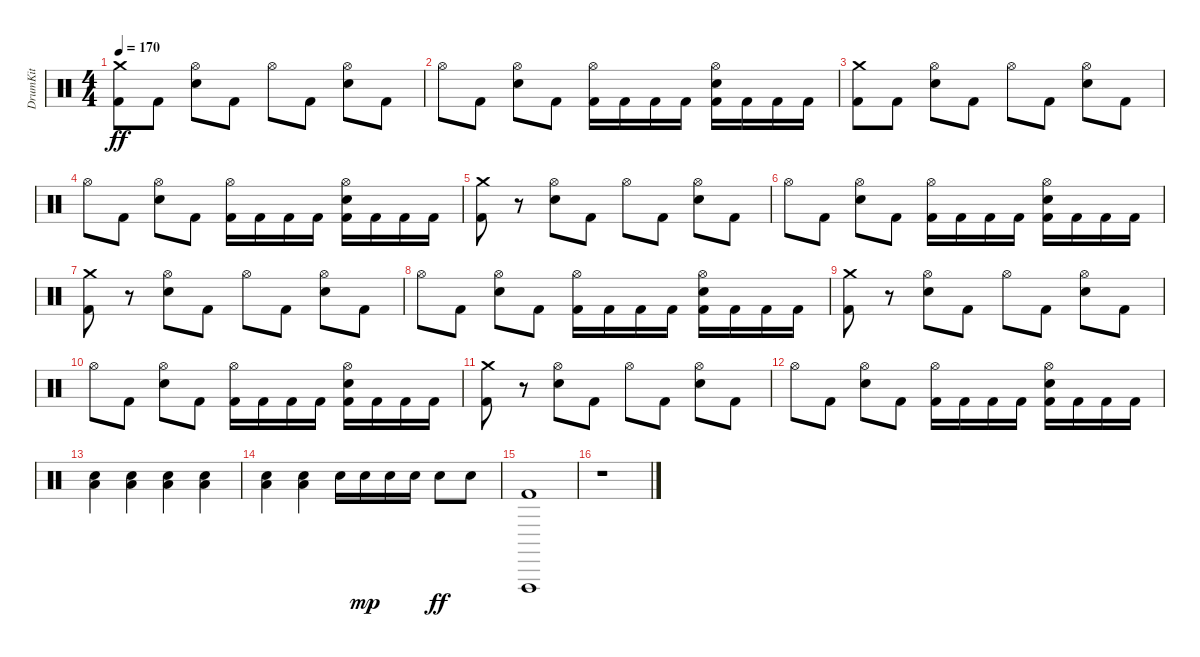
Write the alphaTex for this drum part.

\track ("DrumKit" "DrumKit") {instrument percussion}
\staff {score}
\articulation defaults
\ts (4 4)
\tempo 170
\clef neutral
\ks c
("Kick (hit) 2" "Crash medium (hit)").8{dy ff} "Kick (hit) 2".8 ("Snare (hit) 2" "Hi-Hat (open)").8 "Kick (hit) 2".8 "Hi-Hat (open)".8 "Kick (hit) 2".8 ("Snare (hit) 2" "Hi-Hat (open)").8 "Kick (hit) 2".8 |
"Hi-Hat (open)".8 "Kick (hit) 2".8 ("Snare (hit) 2" "Hi-Hat (open)").8 "Kick (hit) 2".8 ("Kick (hit) 2" "Hi-Hat (open)").16 "Kick (hit) 2".16 "Kick (hit) 2".16 "Kick (hit) 2".16 ("Kick (hit) 2" "Snare (hit) 2" "Hi-Hat (open)").16 "Kick (hit) 2".16 "Kick (hit) 2".16 "Kick (hit) 2".16 |
("Kick (hit) 2" "Crash medium (hit)").8 "Kick (hit) 2".8 ("Snare (hit) 2" "Hi-Hat (open)").8 "Kick (hit) 2".8 "Hi-Hat (open)".8 "Kick (hit) 2".8 ("Snare (hit) 2" "Hi-Hat (open)").8 "Kick (hit) 2".8 |
"Hi-Hat (open)".8 "Kick (hit) 2".8 ("Snare (hit) 2" "Hi-Hat (open)").8 "Kick (hit) 2".8 ("Kick (hit) 2" "Hi-Hat (open)").16 "Kick (hit) 2".16 "Kick (hit) 2".16 "Kick (hit) 2".16 ("Kick (hit) 2" "Snare (hit) 2" "Hi-Hat (open)").16 "Kick (hit) 2".16 "Kick (hit) 2".16 "Kick (hit) 2".16 |
("Kick (hit) 2" "Crash medium (hit)").8 r.8 ("Snare (hit) 2" "Hi-Hat (open)").8 "Kick (hit) 2".8 "Hi-Hat (open)".8 "Kick (hit) 2".8 ("Snare (hit) 2" "Hi-Hat (open)").8 "Kick (hit) 2".8 |
"Hi-Hat (open)".8 "Kick (hit) 2".8 ("Snare (hit) 2" "Hi-Hat (open)").8 "Kick (hit) 2".8 ("Kick (hit) 2" "Hi-Hat (open)").16 "Kick (hit) 2".16 "Kick (hit) 2".16 "Kick (hit) 2".16 ("Kick (hit) 2" "Snare (hit) 2" "Hi-Hat (open)").16 "Kick (hit) 2".16 "Kick (hit) 2".16 "Kick (hit) 2".16 |
("Kick (hit) 2" "Crash medium (hit)").8 r.8 ("Snare (hit) 2" "Hi-Hat (open)").8 "Kick (hit) 2".8 "Hi-Hat (open)".8 "Kick (hit) 2".8 ("Snare (hit) 2" "Hi-Hat (open)").8 "Kick (hit) 2".8 |
"Hi-Hat (open)".8 "Kick (hit) 2".8 ("Snare (hit) 2" "Hi-Hat (open)").8 "Kick (hit) 2".8 ("Kick (hit) 2" "Hi-Hat (open)").16 "Kick (hit) 2".16 "Kick (hit) 2".16 "Kick (hit) 2".16 ("Kick (hit) 2" "Snare (hit) 2" "Hi-Hat (open)").16 "Kick (hit) 2".16 "Kick (hit) 2".16 "Kick (hit) 2".16 |
("Kick (hit) 2" "Crash medium (hit)").8 r.8 ("Snare (hit) 2" "Hi-Hat (open)").8 "Kick (hit) 2".8 "Hi-Hat (open)".8 "Kick (hit) 2".8 ("Snare (hit) 2" "Hi-Hat (open)").8 "Kick (hit) 2".8 |
"Hi-Hat (open)".8 "Kick (hit) 2".8 ("Snare (hit) 2" "Hi-Hat (open)").8 "Kick (hit) 2".8 ("Kick (hit) 2" "Hi-Hat (open)").16 "Kick (hit) 2".16 "Kick (hit) 2".16 "Kick (hit) 2".16 ("Kick (hit) 2" "Snare (hit) 2" "Hi-Hat (open)").16 "Kick (hit) 2".16 "Kick (hit) 2".16 "Kick (hit) 2".16 |
("Kick (hit) 2" "Crash medium (hit)").8 r.8 ("Snare (hit) 2" "Hi-Hat (open)").8 "Kick (hit) 2".8 "Hi-Hat (open)".8 "Kick (hit) 2".8 ("Snare (hit) 2" "Hi-Hat (open)").8 "Kick (hit) 2".8 |
"Hi-Hat (open)".8 "Kick (hit) 2".8 ("Snare (hit) 2" "Hi-Hat (open)").8 "Kick (hit) 2".8 ("Kick (hit) 2" "Hi-Hat (open)").16 "Kick (hit) 2".16 "Kick (hit) 2".16 "Kick (hit) 2".16 ("Kick (hit) 2" "Snare (hit) 2" "Hi-Hat (open)").16 "Kick (hit) 2".16 "Kick (hit) 2".16 "Kick (hit) 2".16 |
("Snare (hit) 2" "Low Floor Tom (hit)").4 ("Snare (hit) 2" "Low Floor Tom (hit)").4 ("Snare (hit) 2" "Low Floor Tom (hit)").4 ("Snare (hit) 2" "Low Floor Tom (hit)").4 |
("Snare (hit) 2" "Low Floor Tom (hit)").4 ("Snare (hit) 2" "Low Floor Tom (hit)").4 "Snare (hit) 2".16 "Snare (hit) 2".16{dy mp} "Snare (hit) 2".16 "Snare (hit) 2".16 "Snare (hit) 2".8{dy ff} "Snare (hit) 2".8 |
("Kick (hit) 2" "Vibraslap (hit)").1 |
r.1
